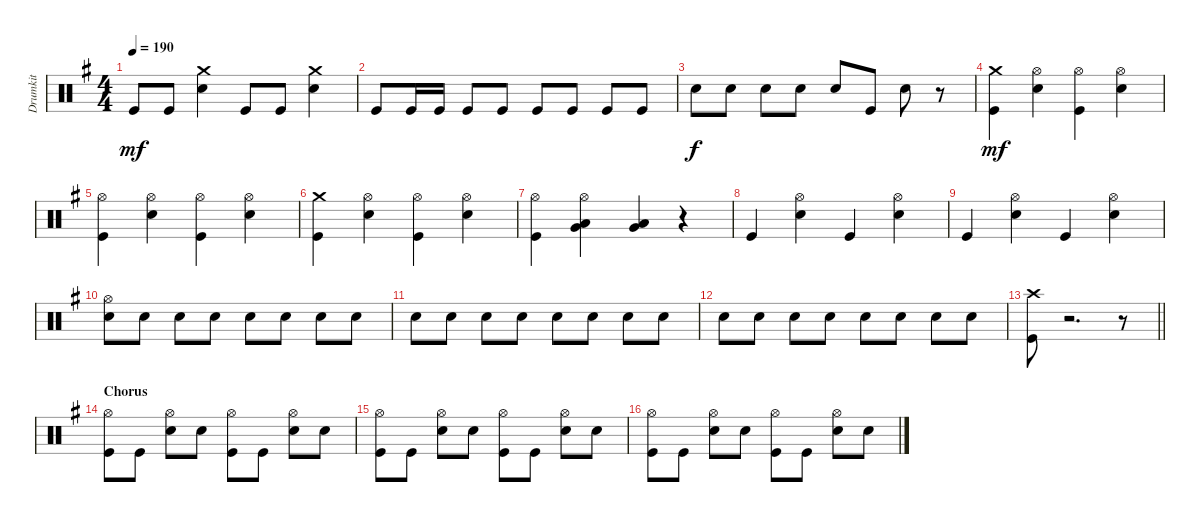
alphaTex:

\track ("Drumkit" "Drumkit") {instrument percussion}
\staff {score}
\articulation defaults
\ts (4 4)
\tempo 190
\clef neutral
\ks eminor "Kick (hit)".8{dy mf} "Kick (hit)".8
("Snare (hit) 2" "Crash medium (hit)").4 "Kick (hit)".8 "Kick (hit)".8 ("Snare (hit) 2" "Crash medium (hit)").4 |
"Kick (hit)".8 "Kick (hit)".16 "Kick (hit)".16 "Kick (hit)".8 "Kick (hit)".8 "Kick (hit)".8 "Kick (hit)".8 "Kick (hit)".8 "Kick (hit)".8 |
"Snare (hit) 2".8{dy f} "Snare (hit) 2".8 "Snare (hit) 2".8 "Snare (hit) 2".8 "Snare (hit) 2".8 "Kick (hit)".8 "Snare (hit) 2".8 r.8 |
("Kick (hit)" "Crash medium (hit)").4{dy mf} ("Snare (hit) 2" "Hi-Hat (open)").4 ("Kick (hit)" "Hi-Hat (open)").4 ("Snare (hit) 2" "Hi-Hat (open)").4 |
("Kick (hit)" "Hi-Hat (open)").4 ("Snare (hit) 2" "Hi-Hat (open)").4 ("Kick (hit)" "Hi-Hat (open)").4 ("Snare (hit) 2" "Hi-Hat (open)").4 |
("Kick (hit)" "Crash medium (hit)").4 ("Snare (hit) 2" "Hi-Hat (open)").4 ("Kick (hit)" "Hi-Hat (open)").4 ("Snare (hit) 2" "Hi-Hat (open)").4 |
("Kick (hit)" "Hi-Hat (open)").4 ("Hi-Hat (open)" "Low Tom (hit)" "Very Low Tom (hit)").4 ("Low Tom (hit)" "Very Low Tom (hit)").4 r.4 |
"Kick (hit)".4 ("Snare (hit) 2" "Hi-Hat (open)").4 "Kick (hit)".4 ("Snare (hit) 2" "Hi-Hat (open)").4 |
"Kick (hit)".4 ("Snare (hit) 2" "Hi-Hat (open)").4 "Kick (hit)".4 ("Snare (hit) 2" "Hi-Hat (open)").4 |
("Snare (hit) 2" "Hi-Hat (open)").8 "Snare (hit) 2".8 "Snare (hit) 2".8 "Snare (hit) 2".8 "Snare (hit) 2".8 "Snare (hit) 2".8 "Snare (hit) 2".8 "Snare (hit) 2".8 |
"Snare (hit) 2".8 "Snare (hit) 2".8 "Snare (hit) 2".8 "Snare (hit) 2".8 "Snare (hit) 2".8 "Snare (hit) 2".8 "Snare (hit) 2".8 "Snare (hit) 2".8 |
"Snare (hit) 2".8 "Snare (hit) 2".8 "Snare (hit) 2".8 "Snare (hit) 2".8 "Snare (hit) 2".8 "Snare (hit) 2".8 "Snare (hit) 2".8 "Snare (hit) 2".8 |
\barLineRight lightlight
("Crash high (hit)" "Kick (hit)").8 r.2{d} r.8 |
\section ("" "Chorus")
("Kick (hit)" "Hi-Hat (open)").8 "Kick (hit)".8 ("Snare (hit) 2" "Hi-Hat (open)").8 "Snare (hit) 2".8 ("Kick (hit)" "Hi-Hat (open)").8 "Kick (hit)".8 ("Snare (hit) 2" "Hi-Hat (open)").8 "Snare (hit) 2".8 |
("Kick (hit)" "Hi-Hat (open)").8 "Kick (hit)".8 ("Snare (hit) 2" "Hi-Hat (open)").8 "Snare (hit) 2".8 ("Kick (hit)" "Hi-Hat (open)").8 "Kick (hit)".8 ("Snare (hit) 2" "Hi-Hat (open)").8 "Snare (hit) 2".8 |
("Kick (hit)" "Hi-Hat (open)").8 "Kick (hit)".8 ("Snare (hit) 2" "Hi-Hat (open)").8 "Snare (hit) 2".8 ("Kick (hit)" "Hi-Hat (open)").8 "Kick (hit)".8 ("Snare (hit) 2" "Hi-Hat (open)").8 "Snare (hit) 2".8
